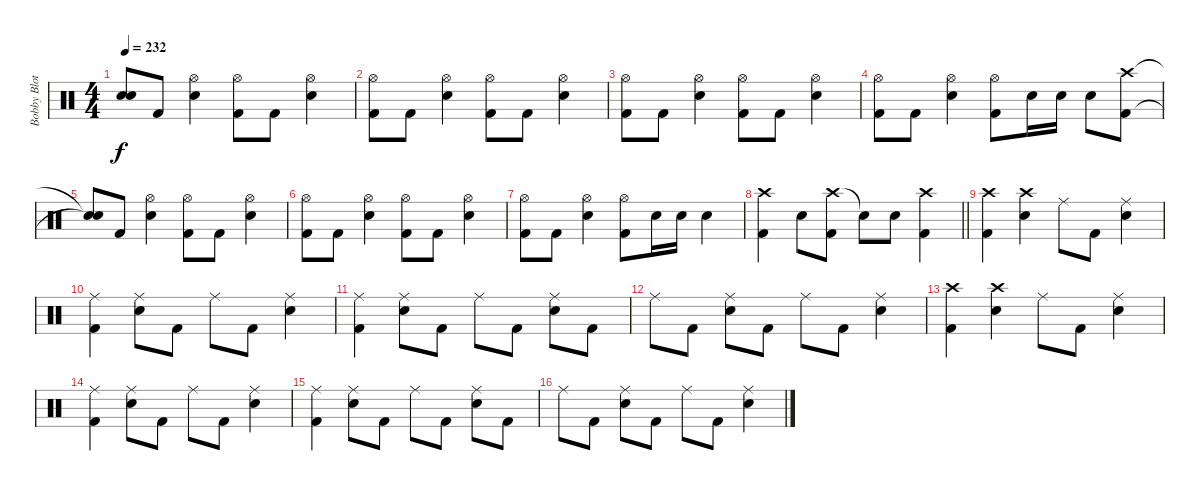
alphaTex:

\track ("Bobby Blotzer" "Bobby Blot") {instrument percussion}
\staff {score}
\articulation defaults
\ts (4 4)
\tempo 232
\clef neutral
\ks c
("Snare (hit)"{t} "Snare (hit)"{t}).8{dy f} "Kick (hit) 2".8 ("Hi-Hat (open)" "Electric Snare (hit)").4 ("Hi-Hat (open)" "Kick (hit) 2").8 "Kick (hit) 2".8 ("Hi-Hat (open)" "Electric Snare (hit)").4 |
("Hi-Hat (open)" "Kick (hit) 2").8 "Kick (hit) 2".8 ("Hi-Hat (open)" "Electric Snare (hit)").4 ("Hi-Hat (open)" "Kick (hit) 2").8 "Kick (hit) 2".8 ("Hi-Hat (open)" "Electric Snare (hit)").4 |
("Hi-Hat (open)" "Kick (hit) 2").8 "Kick (hit) 2".8 ("Hi-Hat (open)" "Electric Snare (hit)").4 ("Hi-Hat (open)" "Kick (hit) 2").8 "Kick (hit) 2".8 ("Hi-Hat (open)" "Electric Snare (hit)").4 |
("Hi-Hat (open)" "Kick (hit) 2").8 "Kick (hit) 2".8 ("Hi-Hat (open)" "Electric Snare (hit)").4 ("Hi-Hat (open)" "Kick (hit) 2").8 "Electric Snare (hit)".16 "Electric Snare (hit)".16 "Electric Snare (hit)".8 ("Crash high (hit)" "Kick (hit) 2").8 |
("Snare (hit)"{t} "Snare (hit)"{t}).8 "Kick (hit) 2".8 ("Hi-Hat (open)" "Electric Snare (hit)").4 ("Hi-Hat (open)" "Kick (hit) 2").8 "Kick (hit) 2".8 ("Hi-Hat (open)" "Electric Snare (hit)").4 |
("Hi-Hat (open)" "Kick (hit) 2").8 "Kick (hit) 2".8 ("Hi-Hat (open)" "Electric Snare (hit)").4 ("Hi-Hat (open)" "Kick (hit) 2").8 "Kick (hit) 2".8 ("Hi-Hat (open)" "Electric Snare (hit)").4 |
("Hi-Hat (open)" "Kick (hit) 2").8 "Kick (hit) 2".8 ("Hi-Hat (open)" "Electric Snare (hit)").4 ("Hi-Hat (open)" "Kick (hit) 2").8 "Electric Snare (hit)".16 "Electric Snare (hit)".16 "Electric Snare (hit)".4 |
\barLineRight lightlight
("Crash high (hit)" "Kick (hit) 2").4 "Electric Snare (hit)".8 ("Crash high (hit)" "Kick (hit) 2").8 "Snare (hit)"{t}.8 "Electric Snare (hit)".8 ("Crash high (hit)" "Kick (hit) 2").4 |
("Crash high (hit)" "Kick (hit) 2").4 ("Crash high (hit)" "Electric Snare (hit)").4 "Ride (middle)".8 "Kick (hit) 2".8 ("Ride (middle)" "Electric Snare (hit)").4 |
("Ride (middle)" "Kick (hit) 2").4 ("Ride (middle)" "Electric Snare (hit)").8 "Kick (hit) 2".8 "Ride (middle)".8 "Kick (hit) 2".8 ("Ride (middle)" "Electric Snare (hit)").4 |
("Ride (middle)" "Kick (hit) 2").4 ("Ride (middle)" "Electric Snare (hit)").8 "Kick (hit) 2".8 "Ride (middle)".8 "Kick (hit) 2".8 ("Ride (middle)" "Electric Snare (hit)").8 "Kick (hit) 2".8 |
"Ride (middle)".8 "Kick (hit) 2".8 ("Ride (middle)" "Electric Snare (hit)").8 "Kick (hit) 2".8 "Ride (middle)".8 "Kick (hit) 2".8 ("Ride (middle)" "Electric Snare (hit)").4 |
("Crash high (hit)" "Kick (hit) 2").4 ("Crash high (hit)" "Electric Snare (hit)").4 "Ride (middle)".8 "Kick (hit) 2".8 ("Ride (middle)" "Electric Snare (hit)").4 |
("Ride (middle)" "Kick (hit) 2").4 ("Ride (middle)" "Electric Snare (hit)").8 "Kick (hit) 2".8 "Ride (middle)".8 "Kick (hit) 2".8 ("Ride (middle)" "Electric Snare (hit)").4 |
("Ride (middle)" "Kick (hit) 2").4 ("Ride (middle)" "Electric Snare (hit)").8 "Kick (hit) 2".8 "Ride (middle)".8 "Kick (hit) 2".8 ("Ride (middle)" "Electric Snare (hit)").8 "Kick (hit) 2".8 |
"Ride (middle)".8 "Kick (hit) 2".8 ("Ride (middle)" "Electric Snare (hit)").8 "Kick (hit) 2".8 "Ride (middle)".8 "Kick (hit) 2".8 ("Ride (middle)" "Electric Snare (hit)").4
